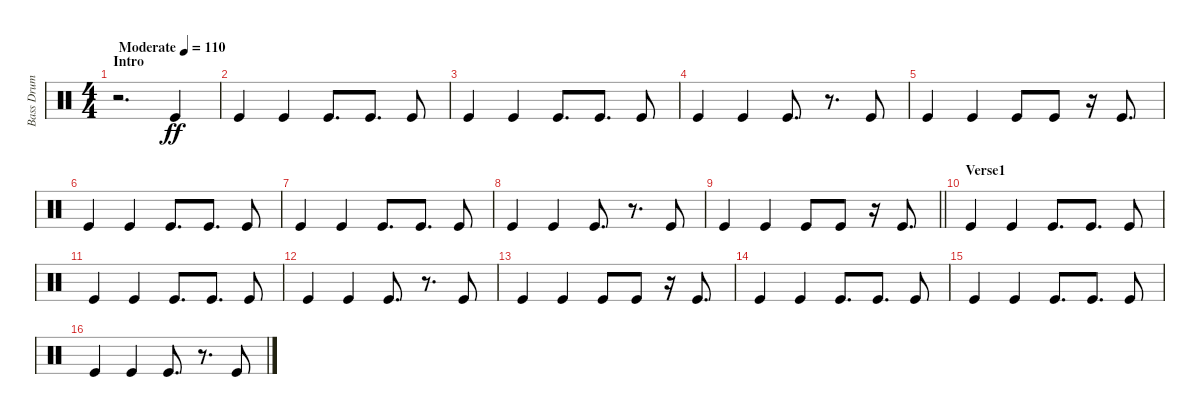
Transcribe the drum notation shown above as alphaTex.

\track ("Bass Drum" "Bass Drum") {instrument percussion}
\staff {score}
\articulation defaults
\ts (4 4)
\section ("" "Intro")
\tempo (110 "Moderate")
\clef neutral
\ks c
r.2{d dy ff} "Kick (hit)".4 |
"Kick (hit)".4 "Kick (hit)".4 "Kick (hit)".8{d} "Kick (hit)".8{d} "Kick (hit)".8 |
"Kick (hit)".4 "Kick (hit)".4 "Kick (hit)".8{d} "Kick (hit)".8{d} "Kick (hit)".8 |
"Kick (hit)".4 "Kick (hit)".4 "Kick (hit)".8{d} r.8{d} "Kick (hit)".8 |
"Kick (hit)".4 "Kick (hit)".4 "Kick (hit)".8 "Kick (hit)".8 r.16 "Kick (hit)".8{d} |
"Kick (hit)".4 "Kick (hit)".4 "Kick (hit)".8{d} "Kick (hit)".8{d} "Kick (hit)".8 |
"Kick (hit)".4 "Kick (hit)".4 "Kick (hit)".8{d} "Kick (hit)".8{d} "Kick (hit)".8 |
"Kick (hit)".4 "Kick (hit)".4 "Kick (hit)".8{d} r.8{d} "Kick (hit)".8 |
\barLineRight lightlight "Kick (hit)".4 "Kick (hit)".4 "Kick (hit)".8 "Kick (hit)".8
r.16 "Kick (hit)".8{d} |
\section ("" "Verse1")
"Kick (hit)".4 "Kick (hit)".4 "Kick (hit)".8{d} "Kick (hit)".8{d} "Kick (hit)".8 |
"Kick (hit)".4 "Kick (hit)".4 "Kick (hit)".8{d} "Kick (hit)".8{d} "Kick (hit)".8 |
"Kick (hit)".4 "Kick (hit)".4 "Kick (hit)".8{d} r.8{d} "Kick (hit)".8 |
"Kick (hit)".4 "Kick (hit)".4 "Kick (hit)".8 "Kick (hit)".8 r.16 "Kick (hit)".8{d} |
"Kick (hit)".4 "Kick (hit)".4 "Kick (hit)".8{d} "Kick (hit)".8{d} "Kick (hit)".8 |
"Kick (hit)".4 "Kick (hit)".4 "Kick (hit)".8{d} "Kick (hit)".8{d} "Kick (hit)".8 |
"Kick (hit)".4 "Kick (hit)".4 "Kick (hit)".8{d} r.8{d} "Kick (hit)".8
